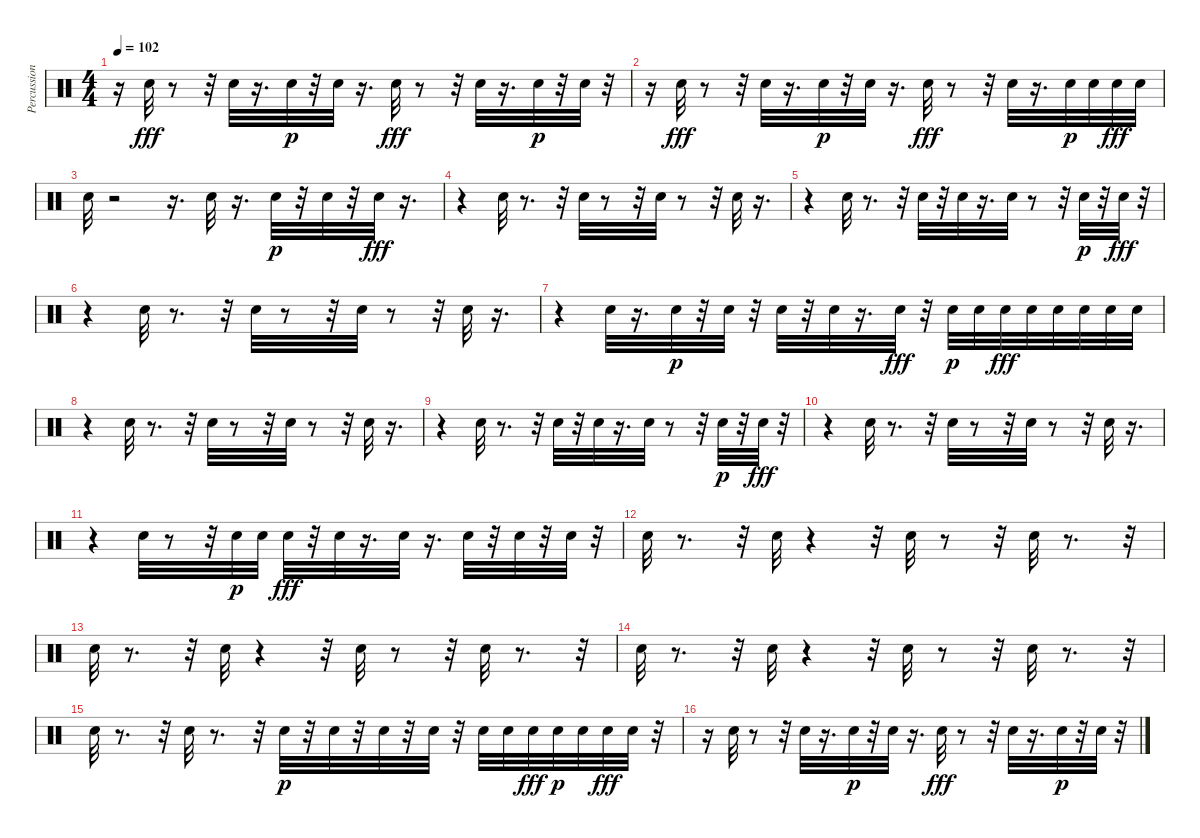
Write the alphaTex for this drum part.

\track ("Percussion" "Percussion") {instrument percussion}
\staff {score}
\articulation defaults
\ts (4 4)
\tempo 102
\clef neutral
\ks c
r.16{dy fff} "Snare (hit) 2".32 r.8 r.32 "Snare (hit) 2".32 r.16{d} "Snare (hit) 2".32{dy p} r.32 "Snare (hit) 2".32 r.16{d} "Snare (hit) 2".32{dy fff} r.8 r.32 "Snare (hit) 2".32 r.16{d} "Snare (hit) 2".32{dy p} r.32 "Snare (hit) 2".32 r.32 |
r.16 "Snare (hit) 2".32{dy fff} r.8 r.32 "Snare (hit) 2".32 r.16{d} "Snare (hit) 2".32{dy p} r.32 "Snare (hit) 2".32 r.16{d} "Snare (hit) 2".32{dy fff} r.8 r.32 "Snare (hit) 2".32 r.16{d} "Snare (hit) 2".32{dy p} "Snare (hit) 2".32 "Snare (hit) 2".32{dy fff} "Snare (hit) 2".32 |
"Snare (hit) 2".32 r.2 r.16{d} "Snare (hit) 2".32 r.16{d} "Snare (hit) 2".32{dy p} r.32 "Snare (hit) 2".32 r.32 "Snare (hit) 2".32{dy fff} r.16{d} |
r.4 "Snare (hit) 2".32 r.8{d} r.32 "Snare (hit) 2".32 r.8 r.32 "Snare (hit) 2".32 r.8 r.32 "Snare (hit) 2".32 r.16{d} |
r.4 "Snare (hit) 2".32 r.8{d} r.32 "Snare (hit) 2".32 r.32 "Snare (hit) 2".32 r.16{d} "Snare (hit) 2".32 r.8 r.32 "Snare (hit) 2".32{dy p} r.32 "Snare (hit) 2".32{dy fff} r.32 |
r.4 "Snare (hit) 2".32 r.8{d} r.32 "Snare (hit) 2".32 r.8 r.32 "Snare (hit) 2".32 r.8 r.32 "Snare (hit) 2".32 r.16{d} |
r.4 "Snare (hit) 2".32 r.16{d} "Snare (hit) 2".32{dy p} r.32 "Snare (hit) 2".32 r.32 "Snare (hit) 2".32 r.32 "Snare (hit) 2".32 r.16{d} "Snare (hit) 2".32{dy fff} r.32 "Snare (hit) 2".32{dy p} "Snare (hit) 2".32 "Snare (hit) 2".32{dy fff} "Snare (hit) 2".32 "Snare (hit) 2".32 "Snare (hit) 2".32 "Snare (hit) 2".32 "Snare (hit) 2".32 |
r.4 "Snare (hit) 2".32 r.8{d} r.32 "Snare (hit) 2".32 r.8 r.32 "Snare (hit) 2".32 r.8 r.32 "Snare (hit) 2".32 r.16{d} |
r.4 "Snare (hit) 2".32 r.8{d} r.32 "Snare (hit) 2".32 r.32 "Snare (hit) 2".32 r.16{d} "Snare (hit) 2".32 r.8 r.32 "Snare (hit) 2".32{dy p} r.32 "Snare (hit) 2".32{dy fff} r.32 |
r.4 "Snare (hit) 2".32 r.8{d} r.32 "Snare (hit) 2".32 r.8 r.32 "Snare (hit) 2".32 r.8 r.32 "Snare (hit) 2".32 r.16{d} |
r.4 "Snare (hit) 2".32 r.8 r.32 "Snare (hit) 2".32{dy p} "Snare (hit) 2".32 "Snare (hit) 2".32{dy fff} r.32 "Snare (hit) 2".32 r.16{d} "Snare (hit) 2".32 r.16{d} "Snare (hit) 2".32 r.32 "Snare (hit) 2".32 r.32 "Snare (hit) 2".32 r.32 |
"Snare (hit) 2".32 r.8{d} r.32 "Snare (hit) 2".32 r.4 r.32 "Snare (hit) 2".32 r.8 r.32 "Snare (hit) 2".32 r.8{d} r.32 |
"Snare (hit) 2".32 r.8{d} r.32 "Snare (hit) 2".32 r.4 r.32 "Snare (hit) 2".32 r.8 r.32 "Snare (hit) 2".32 r.8{d} r.32 |
"Snare (hit) 2".32 r.8{d} r.32 "Snare (hit) 2".32 r.4 r.32 "Snare (hit) 2".32 r.8 r.32 "Snare (hit) 2".32 r.8{d} r.32 |
"Snare (hit) 2".32 r.8{d} r.32 "Snare (hit) 2".32 r.8{d} r.32 "Snare (hit) 2".32{dy p} r.32 "Snare (hit) 2".32 r.32 "Snare (hit) 2".32 r.32 "Snare (hit) 2".32 r.32 "Snare (hit) 2".32 "Snare (hit) 2".32 "Snare (hit) 2".32{dy fff} "Snare (hit) 2".32{dy p} "Snare (hit) 2".32 "Snare (hit) 2".32{dy fff} "Snare (hit) 2".32 r.32 |
r.16 "Snare (hit) 2".32 r.8 r.32 "Snare (hit) 2".32 r.16{d} "Snare (hit) 2".32{dy p} r.32 "Snare (hit) 2".32 r.16{d} "Snare (hit) 2".32{dy fff} r.8 r.32 "Snare (hit) 2".32 r.16{d} "Snare (hit) 2".32{dy p} r.32 "Snare (hit) 2".32 r.32
